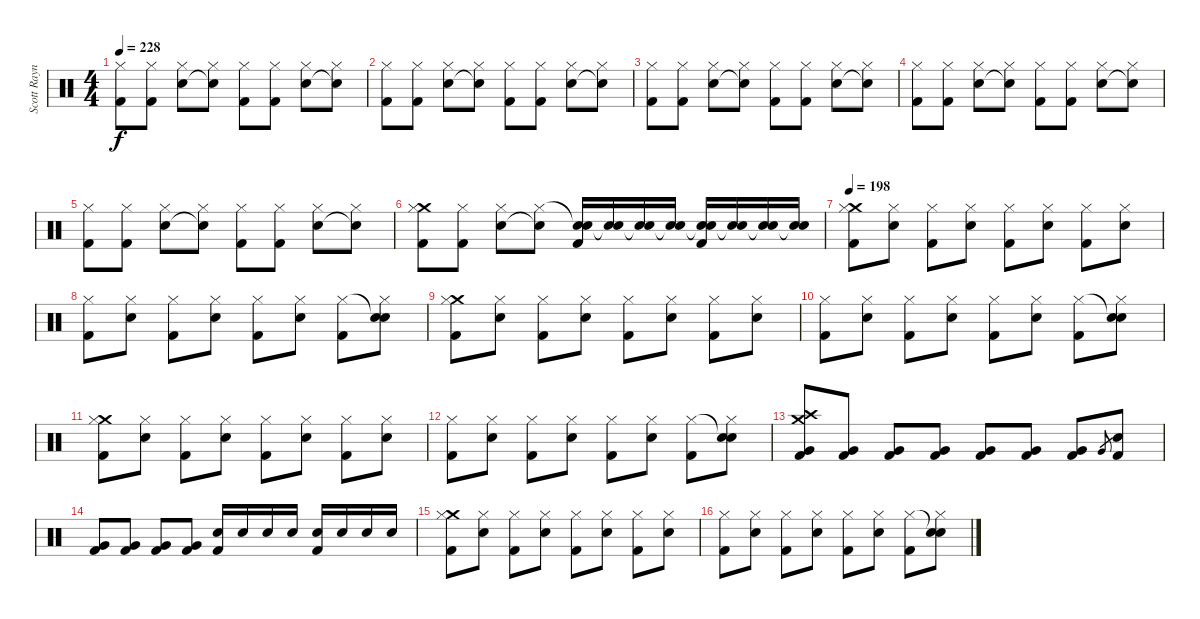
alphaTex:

\track ("Scott Raynor Drums" "Scott Rayn") {instrument percussion}
\staff {score}
\articulation defaults
\ts (4 4)
\tempo 228
\clef neutral
\ks c
("Hi-Hat (closed)" "Kick (hit) 2").8{dy f} ("Hi-Hat (closed)" "Kick (hit) 2").8 ("Hi-Hat (closed)" "Electric Snare (hit)").8 ("Hi-Hat (closed)" "Snare (hit)"{t}).8 ("Hi-Hat (closed)" "Kick (hit) 2").8 ("Hi-Hat (closed)" "Kick (hit) 2").8 ("Hi-Hat (closed)" "Electric Snare (hit)").8 ("Hi-Hat (closed)" "Snare (hit)"{t}).8 |
("Hi-Hat (closed)" "Kick (hit) 2").8 ("Hi-Hat (closed)" "Kick (hit) 2").8 ("Hi-Hat (closed)" "Electric Snare (hit)").8 ("Hi-Hat (closed)" "Snare (hit)"{t}).8 ("Hi-Hat (closed)" "Kick (hit) 2").8 ("Hi-Hat (closed)" "Kick (hit) 2").8 ("Hi-Hat (closed)" "Electric Snare (hit)").8 ("Hi-Hat (closed)" "Snare (hit)"{t}).8 |
("Hi-Hat (closed)" "Kick (hit) 2").8 ("Hi-Hat (closed)" "Kick (hit) 2").8 ("Hi-Hat (closed)" "Electric Snare (hit)").8 ("Hi-Hat (closed)" "Snare (hit)"{t}).8 ("Hi-Hat (closed)" "Kick (hit) 2").8 ("Hi-Hat (closed)" "Kick (hit) 2").8 ("Hi-Hat (closed)" "Electric Snare (hit)").8 ("Hi-Hat (closed)" "Snare (hit)"{t}).8 |
("Hi-Hat (closed)" "Kick (hit) 2").8 ("Hi-Hat (closed)" "Kick (hit) 2").8 ("Hi-Hat (closed)" "Electric Snare (hit)").8 ("Hi-Hat (closed)" "Snare (hit)"{t}).8 ("Hi-Hat (closed)" "Kick (hit) 2").8 ("Hi-Hat (closed)" "Kick (hit) 2").8 ("Hi-Hat (closed)" "Electric Snare (hit)").8 ("Hi-Hat (closed)" "Snare (hit)"{t}).8 |
("Hi-Hat (closed)" "Kick (hit) 2").8 ("Hi-Hat (closed)" "Kick (hit) 2").8 ("Hi-Hat (closed)" "Electric Snare (hit)").8 ("Hi-Hat (closed)" "Snare (hit)"{t}).8 ("Hi-Hat (closed)" "Kick (hit) 2").8 ("Hi-Hat (closed)" "Kick (hit) 2").8 ("Hi-Hat (closed)" "Electric Snare (hit)").8 ("Hi-Hat (closed)" "Snare (hit)"{t}).8 |
("Crash medium (hit)" "Hi-Hat (closed)" "Kick (hit) 2").8 ("Hi-Hat (closed)" "Kick (hit) 2").8 ("Hi-Hat (closed)" "Electric Snare (hit)").8 ("Hi-Hat (closed)" "Snare (hit)"{t}).8 ("Snare (hit)"{t} "Electric Snare (hit)" "Kick (hit) 2").16 ("Snare (hit)"{t} "Electric Snare (hit)").16 ("Snare (hit)"{t} "Electric Snare (hit)").16 ("Snare (hit)"{t} "Electric Snare (hit)").16 ("Snare (hit)"{t} "Electric Snare (hit)" "Kick (hit) 2").16 ("Snare (hit)"{t} "Electric Snare (hit)").16 ("Snare (hit)"{t} "Electric Snare (hit)").16 ("Snare (hit)"{t} "Electric Snare (hit)").16 |
\tempo 198
("Crash medium (hit)" "Hi-Hat (closed)" "Kick (hit) 2").8 ("Hi-Hat (closed)" "Electric Snare (hit)").8 ("Hi-Hat (closed)" "Kick (hit) 2").8 ("Hi-Hat (closed)" "Electric Snare (hit)").8 ("Hi-Hat (closed)" "Kick (hit) 2").8 ("Hi-Hat (closed)" "Electric Snare (hit)").8 ("Hi-Hat (closed)" "Kick (hit) 2").8 ("Hi-Hat (closed)" "Electric Snare (hit)").8 |
("Hi-Hat (closed)" "Kick (hit) 2").8 ("Hi-Hat (closed)" "Electric Snare (hit)").8 ("Hi-Hat (closed)" "Kick (hit) 2").8 ("Hi-Hat (closed)" "Electric Snare (hit)").8 ("Hi-Hat (closed)" "Kick (hit) 2").8 ("Hi-Hat (closed)" "Electric Snare (hit)").8 ("Hi-Hat (closed)" "Kick (hit) 2").8 ("Snare (hit)"{t} "Hi-Hat (closed)" "Electric Snare (hit)").8 |
("Crash medium (hit)" "Hi-Hat (closed)" "Kick (hit) 2").8 ("Hi-Hat (closed)" "Electric Snare (hit)").8 ("Hi-Hat (closed)" "Kick (hit) 2").8 ("Hi-Hat (closed)" "Electric Snare (hit)").8 ("Hi-Hat (closed)" "Kick (hit) 2").8 ("Hi-Hat (closed)" "Electric Snare (hit)").8 ("Hi-Hat (closed)" "Kick (hit) 2").8 ("Hi-Hat (closed)" "Electric Snare (hit)").8 |
("Hi-Hat (closed)" "Kick (hit) 2").8 ("Hi-Hat (closed)" "Electric Snare (hit)").8 ("Hi-Hat (closed)" "Kick (hit) 2").8 ("Hi-Hat (closed)" "Electric Snare (hit)").8 ("Hi-Hat (closed)" "Kick (hit) 2").8 ("Hi-Hat (closed)" "Electric Snare (hit)").8 ("Hi-Hat (closed)" "Kick (hit) 2").8 ("Snare (hit)"{t} "Hi-Hat (closed)" "Electric Snare (hit)").8 |
("Crash medium (hit)" "Hi-Hat (closed)" "Kick (hit) 2").8 ("Hi-Hat (closed)" "Electric Snare (hit)").8 ("Hi-Hat (closed)" "Kick (hit) 2").8 ("Hi-Hat (closed)" "Electric Snare (hit)").8 ("Hi-Hat (closed)" "Kick (hit) 2").8 ("Hi-Hat (closed)" "Electric Snare (hit)").8 ("Hi-Hat (closed)" "Kick (hit) 2").8 ("Hi-Hat (closed)" "Electric Snare (hit)").8 |
("Hi-Hat (closed)" "Kick (hit) 2").8 ("Hi-Hat (closed)" "Electric Snare (hit)").8 ("Hi-Hat (closed)" "Kick (hit) 2").8 ("Hi-Hat (closed)" "Electric Snare (hit)").8 ("Hi-Hat (closed)" "Kick (hit) 2").8 ("Hi-Hat (closed)" "Electric Snare (hit)").8 ("Hi-Hat (closed)" "Kick (hit) 2").8 ("Snare (hit)"{t} "Hi-Hat (closed)" "Electric Snare (hit)").8 |
("Crash medium (hit)" "Crash high (hit)" "Very Low Tom (hit)" "Kick (hit) 2").8 ("Very Low Tom (hit)" "Kick (hit) 2").8 ("Very Low Tom (hit)" "Kick (hit) 2").8 ("Very Low Tom (hit)" "Kick (hit) 2").8 ("Very Low Tom (hit)" "Kick (hit) 2").8 ("Very Low Tom (hit)" "Kick (hit) 2").8 ("Very Low Tom (hit)" "Kick (hit) 2").8 "Very Low Tom (hit)".8{gr} ("Snare (hit) 2" "Kick (hit) 2").8 |
("Very Low Tom (hit)" "Kick (hit) 2").8 ("Very Low Tom (hit)" "Kick (hit) 2").8 ("Very Low Tom (hit)" "Kick (hit) 2").8 ("Very Low Tom (hit)" "Kick (hit) 2").8 ("Electric Snare (hit)" "Kick (hit) 2").16 "Electric Snare (hit)".16 "Electric Snare (hit)".16 "Electric Snare (hit)".16 ("Electric Snare (hit)" "Kick (hit) 2").16 "Electric Snare (hit)".16 "Electric Snare (hit)".16 "Electric Snare (hit)".16 |
("Crash medium (hit)" "Hi-Hat (closed)" "Kick (hit) 2").8 ("Hi-Hat (closed)" "Electric Snare (hit)").8 ("Hi-Hat (closed)" "Kick (hit) 2").8 ("Hi-Hat (closed)" "Electric Snare (hit)").8 ("Hi-Hat (closed)" "Kick (hit) 2").8 ("Hi-Hat (closed)" "Electric Snare (hit)").8 ("Hi-Hat (closed)" "Kick (hit) 2").8 ("Hi-Hat (closed)" "Electric Snare (hit)").8 |
("Hi-Hat (closed)" "Kick (hit) 2").8 ("Hi-Hat (closed)" "Electric Snare (hit)").8 ("Hi-Hat (closed)" "Kick (hit) 2").8 ("Hi-Hat (closed)" "Electric Snare (hit)").8 ("Hi-Hat (closed)" "Kick (hit) 2").8 ("Hi-Hat (closed)" "Electric Snare (hit)").8 ("Hi-Hat (closed)" "Kick (hit) 2").8 ("Snare (hit)"{t} "Hi-Hat (closed)" "Electric Snare (hit)").8
